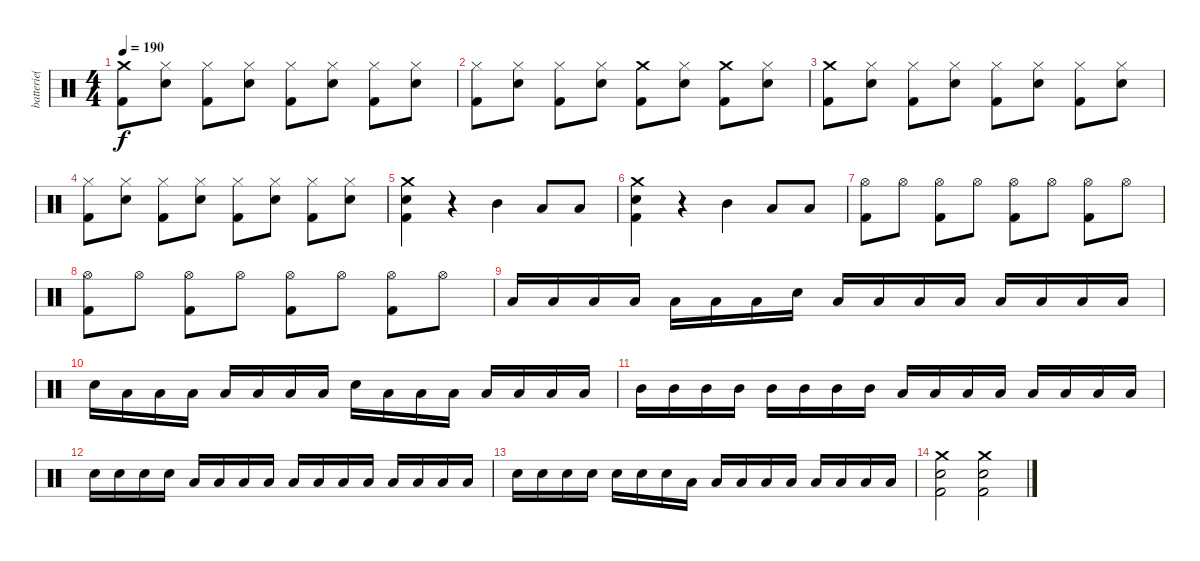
\track ("batterie( Byron McMackin )" "batterie( ") {instrument percussion}
\staff {score}
\articulation defaults
\ts (4 4)
\tempo 190
\clef neutral
\ks c
("Crash medium (hit)" "Kick (hit) 2").8{dy f} ("Hi-Hat (closed)" "Snare (hit) 2").8 ("Hi-Hat (closed)" "Kick (hit) 2").8 ("Hi-Hat (closed)" "Snare (hit) 2").8 ("Hi-Hat (closed)" "Kick (hit) 2").8 ("Hi-Hat (closed)" "Snare (hit) 2").8 ("Hi-Hat (closed)" "Kick (hit) 2").8 ("Hi-Hat (closed)" "Snare (hit) 2").8 |
("Hi-Hat (closed)" "Kick (hit) 2").8 ("Hi-Hat (closed)" "Snare (hit) 2").8 ("Hi-Hat (closed)" "Kick (hit) 2").8 ("Hi-Hat (closed)" "Snare (hit) 2").8 ("Crash medium (hit)" "Kick (hit) 2").8 ("Hi-Hat (closed)" "Snare (hit) 2").8 ("Crash medium (hit)" "Kick (hit) 2").8 ("Hi-Hat (closed)" "Snare (hit) 2").8 |
("Crash medium (hit)" "Kick (hit) 2").8 ("Hi-Hat (closed)" "Snare (hit) 2").8 ("Hi-Hat (closed)" "Kick (hit) 2").8 ("Hi-Hat (closed)" "Snare (hit) 2").8 ("Hi-Hat (closed)" "Kick (hit) 2").8 ("Hi-Hat (closed)" "Snare (hit) 2").8 ("Hi-Hat (closed)" "Kick (hit) 2").8 ("Hi-Hat (closed)" "Snare (hit) 2").8 |
("Hi-Hat (closed)" "Kick (hit) 2").8 ("Hi-Hat (closed)" "Snare (hit) 2").8 ("Hi-Hat (closed)" "Kick (hit) 2").8 ("Hi-Hat (closed)" "Snare (hit) 2").8 ("Hi-Hat (closed)" "Kick (hit) 2").8 ("Hi-Hat (closed)" "Snare (hit) 2").8 ("Hi-Hat (closed)" "Kick (hit) 2").8 ("Hi-Hat (closed)" "Snare (hit) 2").8 |
("Crash medium (hit)" "Snare (hit) 2" "Kick (hit) 2").4 r.4 "Mid Tom (hit)".4 "Low Tom (hit)".8 "Low Floor Tom (hit)".8 |
("Crash medium (hit)" "Snare (hit) 2" "Kick (hit) 2").4 r.4 "Mid Tom (hit)".4 "Low Tom (hit)".8 "Low Floor Tom (hit)".8 |
("Hi-Hat (open)" "Kick (hit) 2").8 "Hi-Hat (open)".8 ("Hi-Hat (open)" "Kick (hit) 2").8 "Hi-Hat (open)".8 ("Hi-Hat (open)" "Kick (hit) 2").8 "Hi-Hat (open)".8 ("Hi-Hat (open)" "Kick (hit) 2").8 "Hi-Hat (open)".8 |
("Hi-Hat (open)" "Kick (hit) 2").8 "Hi-Hat (open)".8 ("Hi-Hat (open)" "Kick (hit) 2").8 "Hi-Hat (open)".8 ("Hi-Hat (open)" "Kick (hit) 2").8 "Hi-Hat (open)".8 ("Hi-Hat (open)" "Kick (hit) 2").8 "Hi-Hat (open)".8 |
"Low Tom (hit)".16 "Low Tom (hit)".16 "Low Tom (hit)".16 "Low Tom (hit)".16 "Low Tom (hit)".16 "Low Tom (hit)".16 "Low Tom (hit)".16 "Snare (hit) 2".16 "Low Tom (hit)".16 "Low Tom (hit)".16 "Low Tom (hit)".16 "Low Tom (hit)".16 "Low Tom (hit)".16 "Low Tom (hit)".16 "Low Tom (hit)".16 "Low Tom (hit)".16 |
"Snare (hit) 2".16 "Low Tom (hit)".16 "Low Tom (hit)".16 "Low Tom (hit)".16 "Low Tom (hit)".16 "Low Tom (hit)".16 "Low Tom (hit)".16 "Low Tom (hit)".16 "Snare (hit) 2".16 "Low Tom (hit)".16 "Low Tom (hit)".16 "Low Tom (hit)".16 "Low Tom (hit)".16 "Low Tom (hit)".16 "Low Tom (hit)".16 "Low Tom (hit)".16 |
"Mid Tom (hit)".16 "Mid Tom (hit)".16 "Mid Tom (hit)".16 "Mid Tom (hit)".16 "Mid Tom (hit)".16 "Mid Tom (hit)".16 "Mid Tom (hit)".16 "Mid Tom (hit)".16 "Low Floor Tom (hit)".16 "Low Floor Tom (hit)".16 "Low Floor Tom (hit)".16 "Low Floor Tom (hit)".16 "Low Floor Tom (hit)".16 "Low Floor Tom (hit)".16 "Low Floor Tom (hit)".16 "Low Floor Tom (hit)".16 |
"Snare (hit) 2".16 "Snare (hit) 2".16 "Snare (hit) 2".16 "Snare (hit) 2".16 "Low Tom (hit)".16 "Low Tom (hit)".16 "Low Tom (hit)".16 "Low Tom (hit)".16 "Low Tom (hit)".16 "Low Tom (hit)".16 "Low Tom (hit)".16 "Low Tom (hit)".16 "Low Tom (hit)".16 "Low Tom (hit)".16 "Low Tom (hit)".16 "Low Tom (hit)".16 |
"Snare (hit) 2".16 "Snare (hit) 2".16 "Snare (hit) 2".16 "Snare (hit) 2".16 "Snare (hit) 2".16 "Snare (hit) 2".16 "Snare (hit) 2".16 "Low Tom (hit)".16 "Low Tom (hit)".16 "Low Tom (hit)".16 "Low Tom (hit)".16 "Low Tom (hit)".16 "Low Tom (hit)".16 "Low Tom (hit)".16 "Low Tom (hit)".16 "Low Tom (hit)".16 |
("Crash medium (hit)" "Snare (hit) 2" "Kick (hit) 2").2 ("Crash medium (hit)" "Snare (hit) 2" "Kick (hit) 2").2
